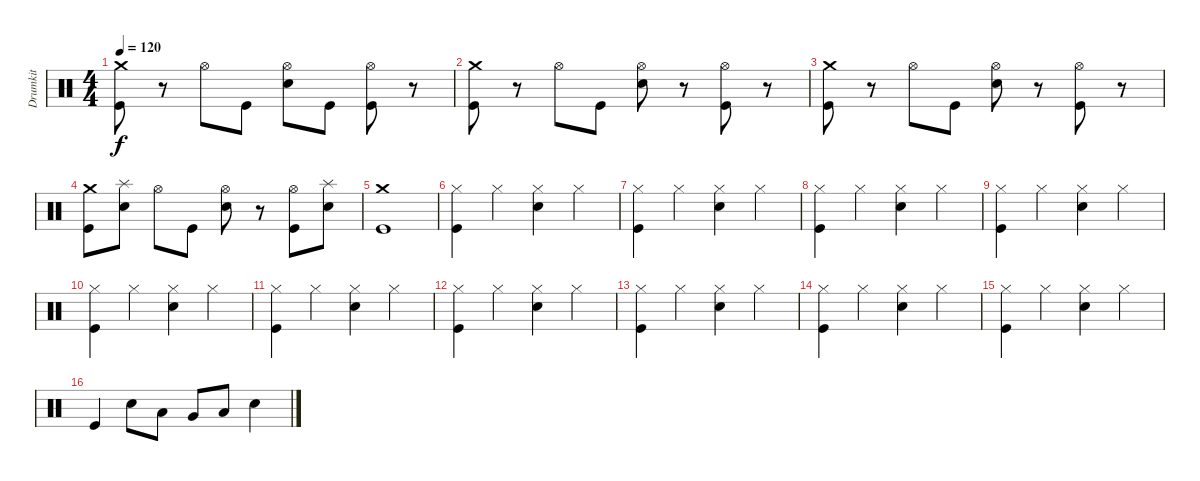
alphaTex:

\track ("Drumkit" "Drumkit") {instrument percussion}
\staff {score}
\articulation defaults
\ts (4 4)
\tempo 120
\clef neutral
\ks c
("Crash medium (hit)" "Kick (hit)").8{dy f} r.8 "Hi-Hat (open)".8 "Kick (hit)".8 ("Hi-Hat (open)" "Snare (hit) 2").8 "Kick (hit)".8 ("Hi-Hat (open)" "Kick (hit)").8 r.8 |
("Crash medium (hit)" "Kick (hit)").8 r.8 "Hi-Hat (open)".8 "Kick (hit)".8 ("Hi-Hat (open)" "Snare (hit) 2").8 r.8 ("Hi-Hat (open)" "Kick (hit)").8 r.8 |
("Crash medium (hit)" "Kick (hit)").8 r.8 "Hi-Hat (open)".8 "Kick (hit)".8 ("Hi-Hat (open)" "Snare (hit) 2").8 r.8 ("Hi-Hat (open)" "Kick (hit)").8 r.8 |
("Crash medium (hit)" "Kick (hit)").8 ("Splash (hit)" "Snare (hit) 2").8 "Hi-Hat (open)".8 "Kick (hit)".8 ("Hi-Hat (open)" "Snare (hit) 2").8 r.8 ("Hi-Hat (open)" "Kick (hit)").8 ("Snare (hit) 2" "Splash (hit)").8 |
("Crash medium (hit)" "Kick (hit)").1 |
("Kick (hit)" "Hi-Hat (closed)").4 "Hi-Hat (closed)".4 ("Snare (hit) 2" "Hi-Hat (closed)").4 "Hi-Hat (closed)".4 |
("Kick (hit)" "Hi-Hat (closed)").4 "Hi-Hat (closed)".4 ("Snare (hit) 2" "Hi-Hat (closed)").4 "Hi-Hat (closed)".4 |
("Kick (hit)" "Hi-Hat (closed)").4 "Hi-Hat (closed)".4 ("Snare (hit) 2" "Hi-Hat (closed)").4 "Hi-Hat (closed)".4 |
("Kick (hit)" "Hi-Hat (closed)").4 "Hi-Hat (closed)".4 ("Snare (hit) 2" "Hi-Hat (closed)").4 "Hi-Hat (closed)".4 |
("Kick (hit)" "Hi-Hat (closed)").4 "Hi-Hat (closed)".4 ("Snare (hit) 2" "Hi-Hat (closed)").4 "Hi-Hat (closed)".4 |
("Kick (hit)" "Hi-Hat (closed)").4 "Hi-Hat (closed)".4 ("Snare (hit) 2" "Hi-Hat (closed)").4 "Hi-Hat (closed)".4 |
("Kick (hit)" "Hi-Hat (closed)").4 "Hi-Hat (closed)".4 ("Snare (hit) 2" "Hi-Hat (closed)").4 "Hi-Hat (closed)".4 |
("Kick (hit)" "Hi-Hat (closed)").4 "Hi-Hat (closed)".4 ("Snare (hit) 2" "Hi-Hat (closed)").4 "Hi-Hat (closed)".4 |
("Kick (hit)" "Hi-Hat (closed)").4 "Hi-Hat (closed)".4 ("Snare (hit) 2" "Hi-Hat (closed)").4 "Hi-Hat (closed)".4 |
("Kick (hit)" "Hi-Hat (closed)").4 "Hi-Hat (closed)".4 ("Snare (hit) 2" "Hi-Hat (closed)").4 "Hi-Hat (closed)".4 |
"Kick (hit)".4 "Snare (hit) 2".8 "Low Tom (hit)".8 "Very Low Tom (hit)".8 "Low Floor Tom (hit)".8 "Snare (hit) 2".4
